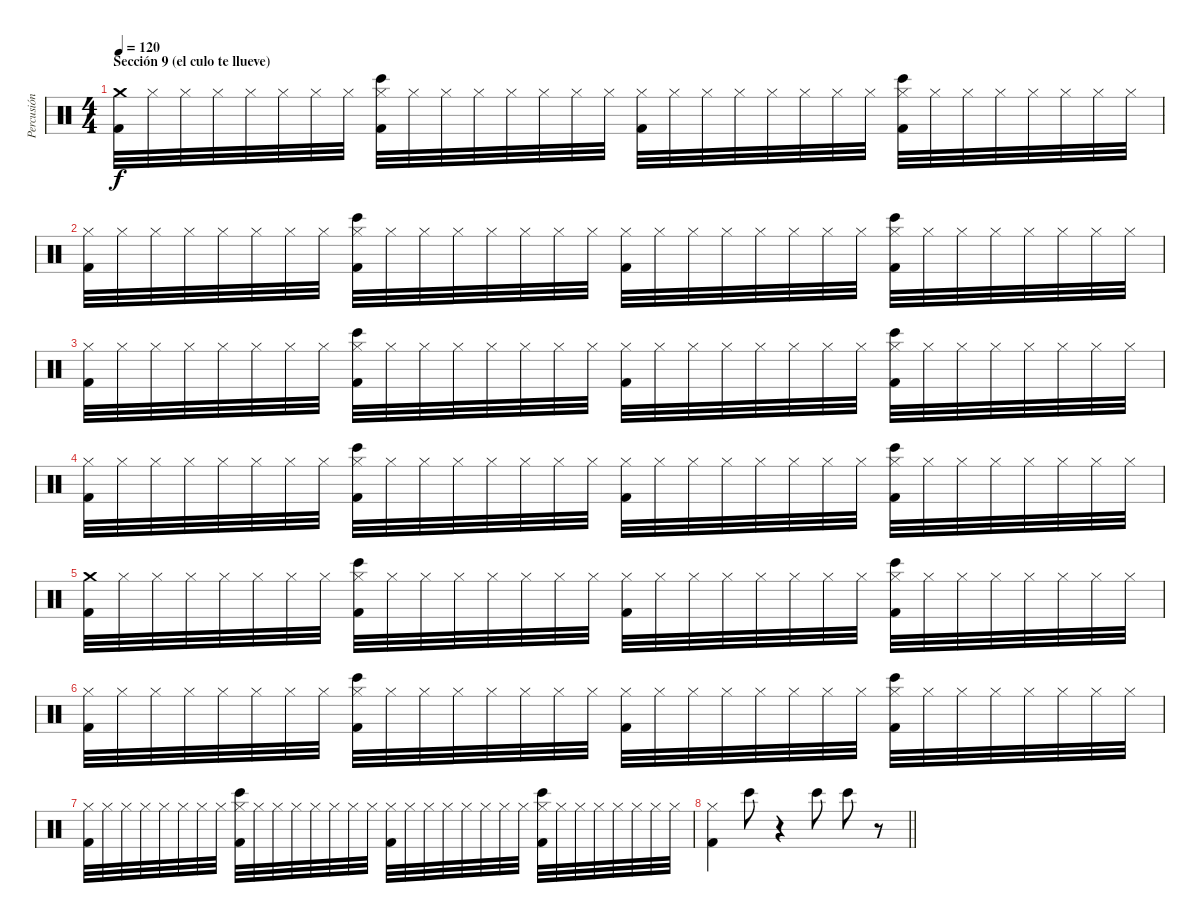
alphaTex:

\track ("Percusión" "Percusión") {instrument percussion}
\staff {score}
\articulation defaults
\ts (4 4)
\section ("" "Sección 9 (el culo te llueve)")
\tempo 120
\clef neutral
\ks c
("Kick (hit) 2" "Crash medium (hit)").32{dy f} "Hi-Hat (closed)".32 "Hi-Hat (closed)".32 "Hi-Hat (closed)".32 "Hi-Hat (closed)".32 "Hi-Hat (closed)".32 "Hi-Hat (closed)".32 "Hi-Hat (closed)".32 ("Kick (hit) 2" "Hi-Hat (closed)" "Bongo High (hit)").32 "Hi-Hat (closed)".32 "Hi-Hat (closed)".32 "Hi-Hat (closed)".32 "Hi-Hat (closed)".32 "Hi-Hat (closed)".32 "Hi-Hat (closed)".32 "Hi-Hat (closed)".32 ("Kick (hit) 2" "Hi-Hat (closed)").32 "Hi-Hat (closed)".32 "Hi-Hat (closed)".32 "Hi-Hat (closed)".32 "Hi-Hat (closed)".32 "Hi-Hat (closed)".32 "Hi-Hat (closed)".32 "Hi-Hat (closed)".32 ("Kick (hit) 2" "Hi-Hat (closed)" "Bongo High (hit)").32 "Hi-Hat (closed)".32 "Hi-Hat (closed)".32 "Hi-Hat (closed)".32 "Hi-Hat (closed)".32 "Hi-Hat (closed)".32 "Hi-Hat (closed)".32 "Hi-Hat (closed)".32 |
("Kick (hit) 2" "Hi-Hat (closed)").32 "Hi-Hat (closed)".32 "Hi-Hat (closed)".32 "Hi-Hat (closed)".32 "Hi-Hat (closed)".32 "Hi-Hat (closed)".32 "Hi-Hat (closed)".32 "Hi-Hat (closed)".32 ("Kick (hit) 2" "Hi-Hat (closed)" "Bongo High (hit)").32 "Hi-Hat (closed)".32 "Hi-Hat (closed)".32 "Hi-Hat (closed)".32 "Hi-Hat (closed)".32 "Hi-Hat (closed)".32 "Hi-Hat (closed)".32 "Hi-Hat (closed)".32 ("Kick (hit) 2" "Hi-Hat (closed)").32 "Hi-Hat (closed)".32 "Hi-Hat (closed)".32 "Hi-Hat (closed)".32 "Hi-Hat (closed)".32 "Hi-Hat (closed)".32 "Hi-Hat (closed)".32 "Hi-Hat (closed)".32 ("Kick (hit) 2" "Hi-Hat (closed)" "Bongo High (hit)").32 "Hi-Hat (closed)".32 "Hi-Hat (closed)".32 "Hi-Hat (closed)".32 "Hi-Hat (closed)".32 "Hi-Hat (closed)".32 "Hi-Hat (closed)".32 "Hi-Hat (closed)".32 |
("Kick (hit) 2" "Hi-Hat (closed)").32 "Hi-Hat (closed)".32 "Hi-Hat (closed)".32 "Hi-Hat (closed)".32 "Hi-Hat (closed)".32 "Hi-Hat (closed)".32 "Hi-Hat (closed)".32 "Hi-Hat (closed)".32 ("Kick (hit) 2" "Hi-Hat (closed)" "Bongo High (hit)").32 "Hi-Hat (closed)".32 "Hi-Hat (closed)".32 "Hi-Hat (closed)".32 "Hi-Hat (closed)".32 "Hi-Hat (closed)".32 "Hi-Hat (closed)".32 "Hi-Hat (closed)".32 ("Kick (hit) 2" "Hi-Hat (closed)").32 "Hi-Hat (closed)".32 "Hi-Hat (closed)".32 "Hi-Hat (closed)".32 "Hi-Hat (closed)".32 "Hi-Hat (closed)".32 "Hi-Hat (closed)".32 "Hi-Hat (closed)".32 ("Kick (hit) 2" "Hi-Hat (closed)" "Bongo High (hit)").32 "Hi-Hat (closed)".32 "Hi-Hat (closed)".32 "Hi-Hat (closed)".32 "Hi-Hat (closed)".32 "Hi-Hat (closed)".32 "Hi-Hat (closed)".32 "Hi-Hat (closed)".32 |
("Kick (hit) 2" "Hi-Hat (closed)").32 "Hi-Hat (closed)".32 "Hi-Hat (closed)".32 "Hi-Hat (closed)".32 "Hi-Hat (closed)".32 "Hi-Hat (closed)".32 "Hi-Hat (closed)".32 "Hi-Hat (closed)".32 ("Kick (hit) 2" "Hi-Hat (closed)" "Bongo High (hit)").32 "Hi-Hat (closed)".32 "Hi-Hat (closed)".32 "Hi-Hat (closed)".32 "Hi-Hat (closed)".32 "Hi-Hat (closed)".32 "Hi-Hat (closed)".32 "Hi-Hat (closed)".32 ("Kick (hit) 2" "Hi-Hat (closed)").32 "Hi-Hat (closed)".32 "Hi-Hat (closed)".32 "Hi-Hat (closed)".32 "Hi-Hat (closed)".32 "Hi-Hat (closed)".32 "Hi-Hat (closed)".32 "Hi-Hat (closed)".32 ("Kick (hit) 2" "Hi-Hat (closed)" "Bongo High (hit)").32 "Hi-Hat (closed)".32 "Hi-Hat (closed)".32 "Hi-Hat (closed)".32 "Hi-Hat (closed)".32 "Hi-Hat (closed)".32 "Hi-Hat (closed)".32 "Hi-Hat (closed)".32 |
("Kick (hit) 2" "Crash medium (hit)").32 "Hi-Hat (closed)".32 "Hi-Hat (closed)".32 "Hi-Hat (closed)".32 "Hi-Hat (closed)".32 "Hi-Hat (closed)".32 "Hi-Hat (closed)".32 "Hi-Hat (closed)".32 ("Kick (hit) 2" "Hi-Hat (closed)" "Bongo High (hit)").32 "Hi-Hat (closed)".32 "Hi-Hat (closed)".32 "Hi-Hat (closed)".32 "Hi-Hat (closed)".32 "Hi-Hat (closed)".32 "Hi-Hat (closed)".32 "Hi-Hat (closed)".32 ("Kick (hit) 2" "Hi-Hat (closed)").32 "Hi-Hat (closed)".32 "Hi-Hat (closed)".32 "Hi-Hat (closed)".32 "Hi-Hat (closed)".32 "Hi-Hat (closed)".32 "Hi-Hat (closed)".32 "Hi-Hat (closed)".32 ("Kick (hit) 2" "Hi-Hat (closed)" "Bongo High (hit)").32 "Hi-Hat (closed)".32 "Hi-Hat (closed)".32 "Hi-Hat (closed)".32 "Hi-Hat (closed)".32 "Hi-Hat (closed)".32 "Hi-Hat (closed)".32 "Hi-Hat (closed)".32 |
("Kick (hit) 2" "Hi-Hat (closed)").32 "Hi-Hat (closed)".32 "Hi-Hat (closed)".32 "Hi-Hat (closed)".32 "Hi-Hat (closed)".32 "Hi-Hat (closed)".32 "Hi-Hat (closed)".32 "Hi-Hat (closed)".32 ("Kick (hit) 2" "Hi-Hat (closed)" "Bongo High (hit)").32 "Hi-Hat (closed)".32 "Hi-Hat (closed)".32 "Hi-Hat (closed)".32 "Hi-Hat (closed)".32 "Hi-Hat (closed)".32 "Hi-Hat (closed)".32 "Hi-Hat (closed)".32 ("Kick (hit) 2" "Hi-Hat (closed)").32 "Hi-Hat (closed)".32 "Hi-Hat (closed)".32 "Hi-Hat (closed)".32 "Hi-Hat (closed)".32 "Hi-Hat (closed)".32 "Hi-Hat (closed)".32 "Hi-Hat (closed)".32 ("Kick (hit) 2" "Hi-Hat (closed)" "Bongo High (hit)").32 "Hi-Hat (closed)".32 "Hi-Hat (closed)".32 "Hi-Hat (closed)".32 "Hi-Hat (closed)".32 "Hi-Hat (closed)".32 "Hi-Hat (closed)".32 "Hi-Hat (closed)".32 |
("Kick (hit) 2" "Hi-Hat (closed)").32 "Hi-Hat (closed)".32 "Hi-Hat (closed)".32 "Hi-Hat (closed)".32 "Hi-Hat (closed)".32 "Hi-Hat (closed)".32 "Hi-Hat (closed)".32 "Hi-Hat (closed)".32 ("Kick (hit) 2" "Hi-Hat (closed)" "Bongo High (hit)").32 "Hi-Hat (closed)".32 "Hi-Hat (closed)".32 "Hi-Hat (closed)".32 "Hi-Hat (closed)".32 "Hi-Hat (closed)".32 "Hi-Hat (closed)".32 "Hi-Hat (closed)".32 ("Kick (hit) 2" "Hi-Hat (closed)").32 "Hi-Hat (closed)".32 "Hi-Hat (closed)".32 "Hi-Hat (closed)".32 "Hi-Hat (closed)".32 "Hi-Hat (closed)".32 "Hi-Hat (closed)".32 "Hi-Hat (closed)".32 ("Kick (hit) 2" "Hi-Hat (closed)" "Bongo High (hit)").32 "Hi-Hat (closed)".32 "Hi-Hat (closed)".32 "Hi-Hat (closed)".32 "Hi-Hat (closed)".32 "Hi-Hat (closed)".32 "Hi-Hat (closed)".32 "Hi-Hat (closed)".32 |
\barLineRight lightlight
("Kick (hit) 2" "Hi-Hat (closed)").4 "Bongo High (hit)".8 r.4 "Bongo High (hit)".8 "Bongo High (hit)".8 r.8
